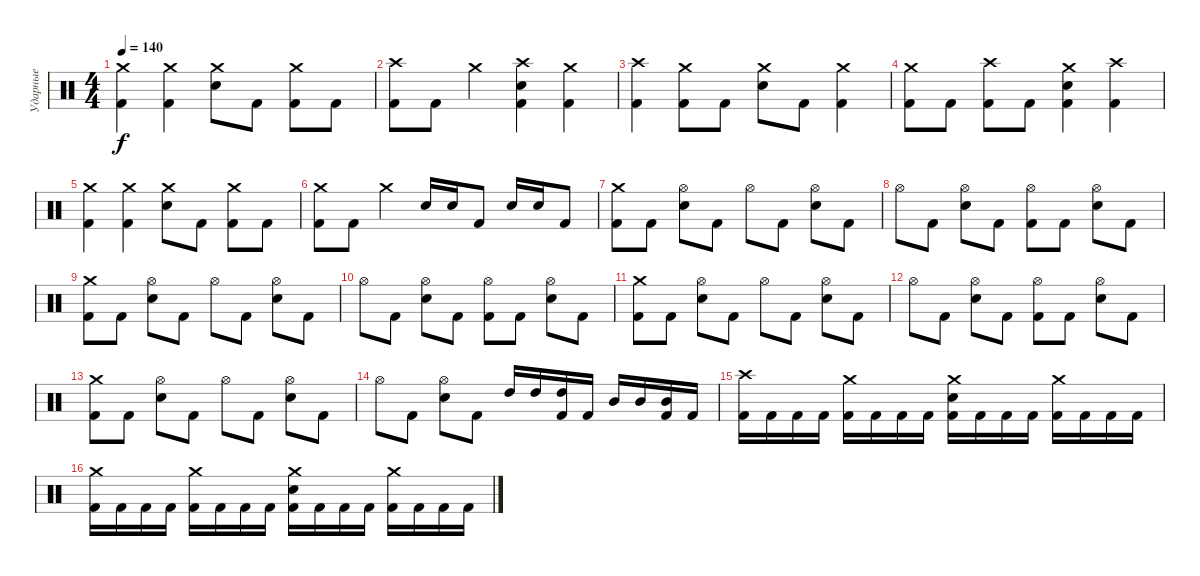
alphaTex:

\track ("Ударные" "Ударные") {instrument percussion}
\staff {score}
\articulation defaults
\ts (4 4)
\tempo 140
\clef neutral
\ks c
("Crash medium (hit)" "Kick (hit) 2").4{dy f} ("Crash medium (hit)" "Kick (hit) 2").4 ("Crash medium (hit)" "Electric Snare (hit)").8 "Kick (hit) 2".8 ("Crash medium (hit)" "Kick (hit) 2").8 "Kick (hit) 2".8 |
("Crash high (hit)" "Kick (hit) 2").8 "Kick (hit) 2".8 "Crash medium (hit)".4 ("Crash high (hit)" "Electric Snare (hit)" "Kick (hit) 2").4 ("Crash medium (hit)" "Kick (hit) 2").4 |
("Crash high (hit)" "Kick (hit) 2").4 ("Crash medium (hit)" "Kick (hit) 2").8 "Kick (hit) 2".8 ("Crash medium (hit)" "Electric Snare (hit)").8 "Kick (hit) 2".8 ("Crash medium (hit)" "Kick (hit) 2").4 |
("Crash medium (hit)" "Kick (hit) 2").8 "Kick (hit) 2".8 ("Crash high (hit)" "Kick (hit) 2").8 "Kick (hit) 2".8 ("Crash medium (hit)" "Electric Snare (hit)" "Kick (hit) 2").4 ("Crash high (hit)" "Kick (hit) 2").4 |
("Crash medium (hit)" "Kick (hit) 2").4 ("Crash medium (hit)" "Kick (hit) 2").4 ("Crash medium (hit)" "Electric Snare (hit)").8 "Kick (hit) 2".8 ("Crash medium (hit)" "Kick (hit) 2").8 "Kick (hit) 2".8 |
("Crash medium (hit)" "Kick (hit) 2").8 "Kick (hit) 2".8 "Crash medium (hit)".4 "Electric Snare (hit)".16 "Electric Snare (hit)".16 "Kick (hit) 2".8 "Electric Snare (hit)".16 "Electric Snare (hit)".16 "Kick (hit) 2".8 |
("Crash medium (hit)" "Kick (hit) 2").8 "Kick (hit) 2".8 ("Hi-Hat (open)" "Electric Snare (hit)").8 "Kick (hit) 2".8 "Hi-Hat (open)".8 "Kick (hit) 2".8 ("Hi-Hat (open)" "Electric Snare (hit)").8 "Kick (hit) 2".8 |
"Hi-Hat (open)".8 "Kick (hit) 2".8 ("Hi-Hat (open)" "Electric Snare (hit)").8 "Kick (hit) 2".8 ("Hi-Hat (open)" "Kick (hit) 2").8 "Kick (hit) 2".8 ("Hi-Hat (open)" "Electric Snare (hit)").8 "Kick (hit) 2".8 |
("Crash medium (hit)" "Kick (hit) 2").8 "Kick (hit) 2".8 ("Hi-Hat (open)" "Electric Snare (hit)").8 "Kick (hit) 2".8 "Hi-Hat (open)".8 "Kick (hit) 2".8 ("Hi-Hat (open)" "Electric Snare (hit)").8 "Kick (hit) 2".8 |
"Hi-Hat (open)".8 "Kick (hit) 2".8 ("Hi-Hat (open)" "Electric Snare (hit)").8 "Kick (hit) 2".8 ("Hi-Hat (open)" "Kick (hit) 2").8 "Kick (hit) 2".8 ("Hi-Hat (open)" "Electric Snare (hit)").8 "Kick (hit) 2".8 |
("Crash medium (hit)" "Kick (hit) 2").8 "Kick (hit) 2".8 ("Hi-Hat (open)" "Electric Snare (hit)").8 "Kick (hit) 2".8 "Hi-Hat (open)".8 "Kick (hit) 2".8 ("Hi-Hat (open)" "Electric Snare (hit)").8 "Kick (hit) 2".8 |
"Hi-Hat (open)".8 "Kick (hit) 2".8 ("Hi-Hat (open)" "Electric Snare (hit)").8 "Kick (hit) 2".8 ("Hi-Hat (open)" "Kick (hit) 2").8 "Kick (hit) 2".8 ("Hi-Hat (open)" "Electric Snare (hit)").8 "Kick (hit) 2".8 |
("Crash medium (hit)" "Kick (hit) 2").8 "Kick (hit) 2".8 ("Hi-Hat (open)" "Electric Snare (hit)").8 "Kick (hit) 2".8 "Hi-Hat (open)".8 "Kick (hit) 2".8 ("Hi-Hat (open)" "Electric Snare (hit)").8 "Kick (hit) 2".8 |
"Hi-Hat (open)".8 "Kick (hit) 2".8 ("Hi-Hat (open)" "Electric Snare (hit)").8 "Kick (hit) 2".8 "High Tom (hit)".16 "High Tom (hit)".16 ("High Tom (hit)" "Kick (hit) 2").16 "Kick (hit) 2".16 "Mid Tom (hit)".16 "Mid Tom (hit)".16 ("Mid Tom (hit)" "Kick (hit) 2").16 "Kick (hit) 2".16 |
("Crash high (hit)" "Kick (hit) 2").16 "Kick (hit) 2".16 "Kick (hit) 2".16 "Kick (hit) 2".16 ("Crash medium (hit)" "Kick (hit) 2").16 "Kick (hit) 2".16 "Kick (hit) 2".16 "Kick (hit) 2".16 ("Crash medium (hit)" "Electric Snare (hit)" "Kick (hit) 2").16 "Kick (hit) 2".16 "Kick (hit) 2".16 "Kick (hit) 2".16 ("Crash medium (hit)" "Kick (hit) 2").16 "Kick (hit) 2".16 "Kick (hit) 2".16 "Kick (hit) 2".16 |
("Crash medium (hit)" "Kick (hit) 2").16 "Kick (hit) 2".16 "Kick (hit) 2".16 "Kick (hit) 2".16 ("Crash medium (hit)" "Kick (hit) 2").16 "Kick (hit) 2".16 "Kick (hit) 2".16 "Kick (hit) 2".16 ("Crash medium (hit)" "Electric Snare (hit)" "Kick (hit) 2").16 "Kick (hit) 2".16 "Kick (hit) 2".16 "Kick (hit) 2".16 ("Crash medium (hit)" "Kick (hit) 2").16 "Kick (hit) 2".16 "Kick (hit) 2".16 "Kick (hit) 2".16
